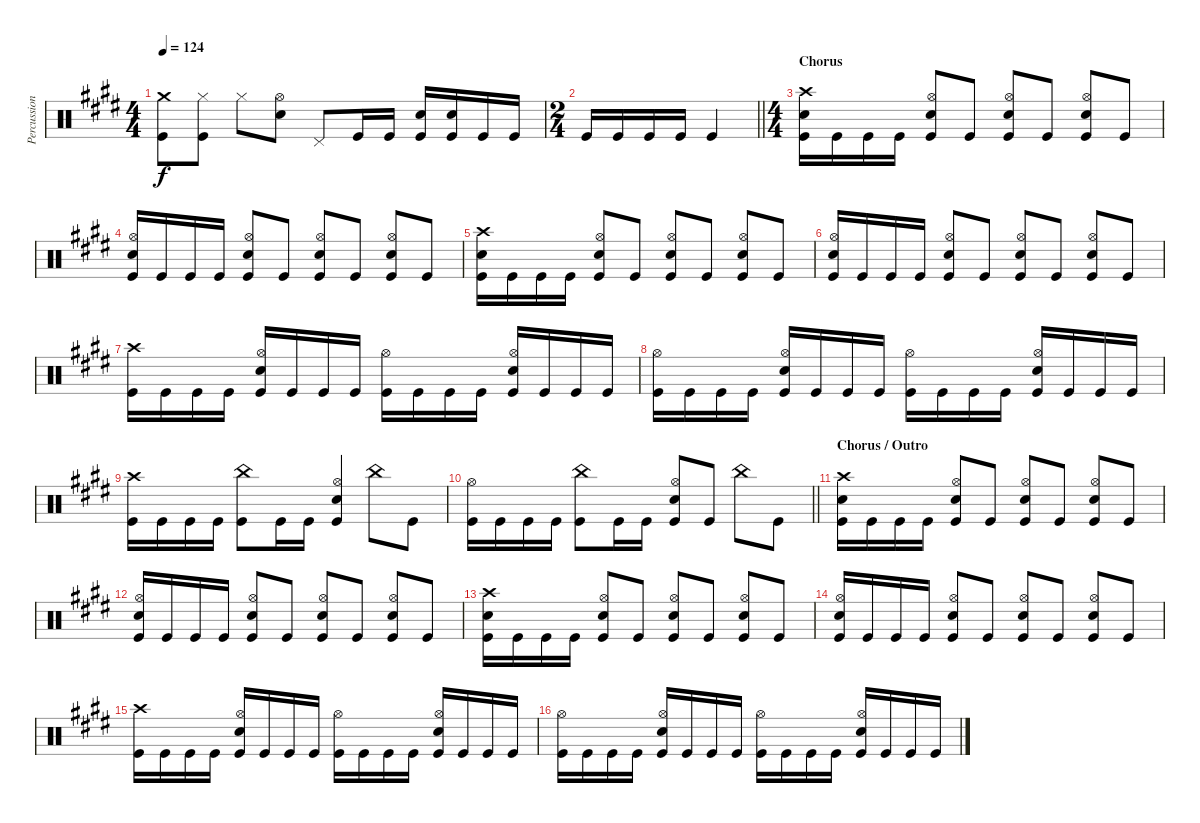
\track ("Percussion" "Percussion") {instrument percussion}
\staff {score}
\articulation defaults
\ts (4 4)
\tempo 124
\clef neutral
\ks e
("Crash medium (hit)" "Kick (hit)").8{dy f} ("Hi-Hat (closed)" "Kick (hit)").8 "Hi-Hat (closed)".8 ("Hi-Hat (open)" "Electric Snare (hit)").8 "Pedal Hi-Hat (hit)".8 "Kick (hit)".16 "Kick (hit)".16 ("Electric Snare (hit)" "Kick (hit)").16 ("Electric Snare (hit)" "Kick (hit)").16 "Kick (hit)".16 "Kick (hit)".16 |
\ts (2 4)
\barLineRight lightlight "Kick (hit)".16 "Kick (hit)".16 "Kick (hit)".16 "Kick (hit)".16 "Kick (hit)".4
|
\ts (4 4)
\section ("" "Chorus")
("Crash high (hit)" "Electric Snare (hit)" "Kick (hit)").16 "Kick (hit)".16 "Kick (hit)".16 "Kick (hit)".16 ("Hi-Hat (open)" "Electric Snare (hit)" "Kick (hit)").8 "Kick (hit)".8 ("Hi-Hat (open)" "Electric Snare (hit)" "Kick (hit)").8 "Kick (hit)".8 ("Hi-Hat (open)" "Electric Snare (hit)" "Kick (hit)").8 "Kick (hit)".8 |
("Hi-Hat (open)" "Electric Snare (hit)" "Kick (hit)").16 "Kick (hit)".16 "Kick (hit)".16 "Kick (hit)".16 ("Hi-Hat (open)" "Electric Snare (hit)" "Kick (hit)").8 "Kick (hit)".8 ("Hi-Hat (open)" "Electric Snare (hit)" "Kick (hit)").8 "Kick (hit)".8 ("Hi-Hat (open)" "Electric Snare (hit)" "Kick (hit)").8 "Kick (hit)".8 |
("Crash high (hit)" "Electric Snare (hit)" "Kick (hit)").16 "Kick (hit)".16 "Kick (hit)".16 "Kick (hit)".16 ("Hi-Hat (open)" "Electric Snare (hit)" "Kick (hit)").8 "Kick (hit)".8 ("Hi-Hat (open)" "Electric Snare (hit)" "Kick (hit)").8 "Kick (hit)".8 ("Hi-Hat (open)" "Electric Snare (hit)" "Kick (hit)").8 "Kick (hit)".8 |
("Hi-Hat (open)" "Electric Snare (hit)" "Kick (hit)").16 "Kick (hit)".16 "Kick (hit)".16 "Kick (hit)".16 ("Hi-Hat (open)" "Electric Snare (hit)" "Kick (hit)").8 "Kick (hit)".8 ("Hi-Hat (open)" "Electric Snare (hit)" "Kick (hit)").8 "Kick (hit)".8 ("Hi-Hat (open)" "Electric Snare (hit)" "Kick (hit)").8 "Kick (hit)".8 |
("Crash high (hit)" "Kick (hit)").16 "Kick (hit)".16 "Kick (hit)".16 "Kick (hit)".16 ("Hi-Hat (open)" "Electric Snare (hit)" "Kick (hit)").16 "Kick (hit)".16 "Kick (hit)".16 "Kick (hit)".16 ("Hi-Hat (open)" "Kick (hit)").16 "Kick (hit)".16 "Kick (hit)".16 "Kick (hit)".16 ("Hi-Hat (open)" "Electric Snare (hit)" "Kick (hit)").16 "Kick (hit)".16 "Kick (hit)".16 "Kick (hit)".16 |
("Hi-Hat (open)" "Kick (hit)").16 "Kick (hit)".16 "Kick (hit)".16 "Kick (hit)".16 ("Hi-Hat (open)" "Electric Snare (hit)" "Kick (hit)").16 "Kick (hit)".16 "Kick (hit)".16 "Kick (hit)".16 ("Hi-Hat (open)" "Kick (hit)").16 "Kick (hit)".16 "Kick (hit)".16 "Kick (hit)".16 ("Hi-Hat (open)" "Electric Snare (hit)" "Kick (hit)").16 "Kick (hit)".16 "Kick (hit)".16 "Kick (hit)".16 |
("Crash high (hit)" "Kick (hit)").16 "Kick (hit)".16 "Kick (hit)".16 "Kick (hit)".16 ("China (hit)" "Kick (hit)").8 "Kick (hit)".16 "Kick (hit)".16 ("Hi-Hat (open)" "Electric Snare (hit)" "Kick (hit)").4 "China (hit)".8 "Kick (hit)".8 |
\barLineRight lightlight
("Hi-Hat (open)" "Kick (hit)").16 "Kick (hit)".16 "Kick (hit)".16 "Kick (hit)".16 ("China (hit)" "Kick (hit)").8 "Kick (hit)".16 "Kick (hit)".16 ("Hi-Hat (open)" "Electric Snare (hit)" "Kick (hit)").8 "Kick (hit)".8 "China (hit)".8 "Kick (hit)".8 |
\section ("" "Chorus / Outro")
("Crash high (hit)" "Electric Snare (hit)" "Kick (hit)").16 "Kick (hit)".16 "Kick (hit)".16 "Kick (hit)".16 ("Hi-Hat (open)" "Electric Snare (hit)" "Kick (hit)").8 "Kick (hit)".8 ("Hi-Hat (open)" "Electric Snare (hit)" "Kick (hit)").8 "Kick (hit)".8 ("Hi-Hat (open)" "Electric Snare (hit)" "Kick (hit)").8 "Kick (hit)".8 |
("Hi-Hat (open)" "Electric Snare (hit)" "Kick (hit)").16 "Kick (hit)".16 "Kick (hit)".16 "Kick (hit)".16 ("Hi-Hat (open)" "Electric Snare (hit)" "Kick (hit)").8 "Kick (hit)".8 ("Hi-Hat (open)" "Electric Snare (hit)" "Kick (hit)").8 "Kick (hit)".8 ("Hi-Hat (open)" "Electric Snare (hit)" "Kick (hit)").8 "Kick (hit)".8 |
("Crash high (hit)" "Electric Snare (hit)" "Kick (hit)").16 "Kick (hit)".16 "Kick (hit)".16 "Kick (hit)".16 ("Hi-Hat (open)" "Electric Snare (hit)" "Kick (hit)").8 "Kick (hit)".8 ("Hi-Hat (open)" "Electric Snare (hit)" "Kick (hit)").8 "Kick (hit)".8 ("Hi-Hat (open)" "Electric Snare (hit)" "Kick (hit)").8 "Kick (hit)".8 |
("Hi-Hat (open)" "Electric Snare (hit)" "Kick (hit)").16 "Kick (hit)".16 "Kick (hit)".16 "Kick (hit)".16 ("Hi-Hat (open)" "Electric Snare (hit)" "Kick (hit)").8 "Kick (hit)".8 ("Hi-Hat (open)" "Electric Snare (hit)" "Kick (hit)").8 "Kick (hit)".8 ("Hi-Hat (open)" "Electric Snare (hit)" "Kick (hit)").8 "Kick (hit)".8 |
("Crash high (hit)" "Kick (hit)").16 "Kick (hit)".16 "Kick (hit)".16 "Kick (hit)".16 ("Hi-Hat (open)" "Electric Snare (hit)" "Kick (hit)").16 "Kick (hit)".16 "Kick (hit)".16 "Kick (hit)".16 ("Hi-Hat (open)" "Kick (hit)").16 "Kick (hit)".16 "Kick (hit)".16 "Kick (hit)".16 ("Hi-Hat (open)" "Electric Snare (hit)" "Kick (hit)").16 "Kick (hit)".16 "Kick (hit)".16 "Kick (hit)".16 |
("Hi-Hat (open)" "Kick (hit)").16 "Kick (hit)".16 "Kick (hit)".16 "Kick (hit)".16 ("Hi-Hat (open)" "Electric Snare (hit)" "Kick (hit)").16 "Kick (hit)".16 "Kick (hit)".16 "Kick (hit)".16 ("Hi-Hat (open)" "Kick (hit)").16 "Kick (hit)".16 "Kick (hit)".16 "Kick (hit)".16 ("Hi-Hat (open)" "Electric Snare (hit)" "Kick (hit)").16 "Kick (hit)".16 "Kick (hit)".16 "Kick (hit)".16
